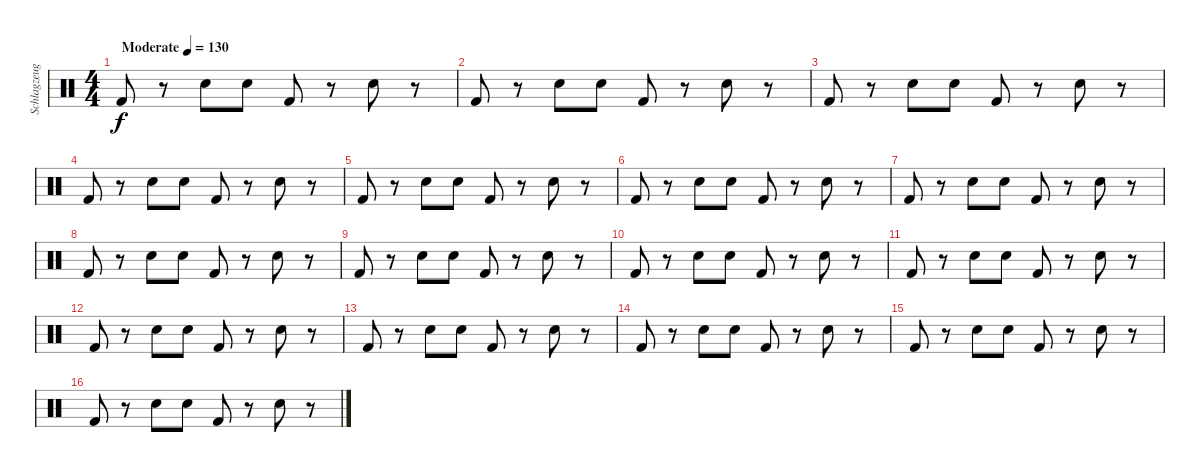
\track ("Schlagzeug" "Schlagzeug") {instrument percussion}
\staff {score}
\articulation defaults
\ts (4 4)
\tempo (130 "Moderate")
\clef neutral
\ks c "Kick (hit) 2".8{dy f}
r.8 "Snare (hit) 2".8 "Snare (hit) 2".8 "Kick (hit) 2".8 r.8 "Snare (hit) 2".8 r.8 |
"Kick (hit) 2".8 r.8 "Snare (hit) 2".8 "Snare (hit) 2".8 "Kick (hit) 2".8 r.8 "Snare (hit) 2".8 r.8 |
"Kick (hit) 2".8 r.8 "Snare (hit) 2".8 "Snare (hit) 2".8 "Kick (hit) 2".8 r.8 "Snare (hit) 2".8 r.8 |
"Kick (hit) 2".8 r.8 "Snare (hit) 2".8 "Snare (hit) 2".8 "Kick (hit) 2".8 r.8 "Snare (hit) 2".8 r.8 |
"Kick (hit) 2".8 r.8 "Snare (hit) 2".8 "Snare (hit) 2".8 "Kick (hit) 2".8 r.8 "Snare (hit) 2".8 r.8 |
"Kick (hit) 2".8 r.8 "Snare (hit) 2".8 "Snare (hit) 2".8 "Kick (hit) 2".8 r.8 "Snare (hit) 2".8 r.8 |
"Kick (hit) 2".8 r.8 "Snare (hit) 2".8 "Snare (hit) 2".8 "Kick (hit) 2".8 r.8 "Snare (hit) 2".8 r.8 |
"Kick (hit) 2".8 r.8 "Snare (hit) 2".8 "Snare (hit) 2".8 "Kick (hit) 2".8 r.8 "Snare (hit) 2".8 r.8 |
"Kick (hit) 2".8 r.8 "Snare (hit) 2".8 "Snare (hit) 2".8 "Kick (hit) 2".8 r.8 "Snare (hit) 2".8 r.8 |
"Kick (hit) 2".8 r.8 "Snare (hit) 2".8 "Snare (hit) 2".8 "Kick (hit) 2".8 r.8 "Snare (hit) 2".8 r.8 |
"Kick (hit) 2".8 r.8 "Snare (hit) 2".8 "Snare (hit) 2".8 "Kick (hit) 2".8 r.8 "Snare (hit) 2".8 r.8 |
"Kick (hit) 2".8 r.8 "Snare (hit) 2".8 "Snare (hit) 2".8 "Kick (hit) 2".8 r.8 "Snare (hit) 2".8 r.8 |
"Kick (hit) 2".8 r.8 "Snare (hit) 2".8 "Snare (hit) 2".8 "Kick (hit) 2".8 r.8 "Snare (hit) 2".8 r.8 |
"Kick (hit) 2".8 r.8 "Snare (hit) 2".8 "Snare (hit) 2".8 "Kick (hit) 2".8 r.8 "Snare (hit) 2".8 r.8 |
"Kick (hit) 2".8 r.8 "Snare (hit) 2".8 "Snare (hit) 2".8 "Kick (hit) 2".8 r.8 "Snare (hit) 2".8 r.8 |
"Kick (hit) 2".8 r.8 "Snare (hit) 2".8 "Snare (hit) 2".8 "Kick (hit) 2".8 r.8 "Snare (hit) 2".8 r.8
